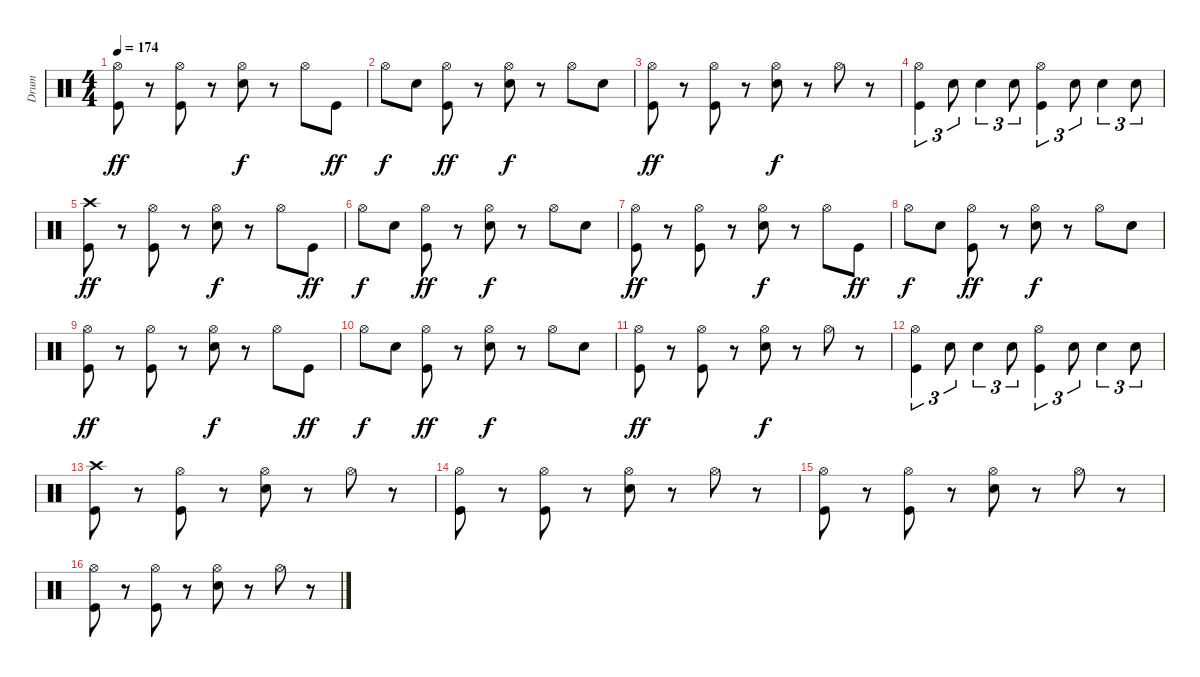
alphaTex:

\track ("Drum" "Drum") {instrument percussion}
\staff {score}
\articulation defaults
\ts (4 4)
\tempo 174
\clef neutral
\ks c
("Hi-Hat (open)" "Kick (hit)").8{dy ff} r.8 ("Hi-Hat (open)" "Kick (hit)").8 r.8 ("Hi-Hat (open)" "Snare (hit) 2").8{dy f} r.8 "Hi-Hat (open)".8 "Kick (hit)".8{dy ff} |
"Hi-Hat (open)".8{dy f} "Snare (hit) 2".8 ("Hi-Hat (open)" "Kick (hit)").8{dy ff} r.8 ("Hi-Hat (open)" "Snare (hit) 2").8{dy f} r.8 "Hi-Hat (open)".8 "Snare (hit) 2".8 |
("Hi-Hat (open)" "Kick (hit)").8{dy ff} r.8 ("Hi-Hat (open)" "Kick (hit)").8 r.8 ("Hi-Hat (open)" "Snare (hit) 2").8{dy f} r.8 "Hi-Hat (open)".8 r.8 |
("Hi-Hat (open)" "Kick (hit)").4{tu (3 2)} "Snare (hit) 2".8{tu (3 2)} "Snare (hit) 2".4{tu (3 2)} "Snare (hit) 2".8{tu (3 2)} ("Hi-Hat (open)" "Kick (hit)").4{tu (3 2)} "Snare (hit) 2".8{tu (3 2)} "Snare (hit) 2".4{tu (3 2)} "Snare (hit) 2".8{tu (3 2)} |
("Crash high (hit)" "Kick (hit)").8{dy ff} r.8 ("Hi-Hat (open)" "Kick (hit)").8 r.8 ("Hi-Hat (open)" "Snare (hit) 2").8{dy f} r.8 "Hi-Hat (open)".8 "Kick (hit)".8{dy ff} |
"Hi-Hat (open)".8{dy f} "Snare (hit) 2".8 ("Hi-Hat (open)" "Kick (hit)").8{dy ff} r.8 ("Hi-Hat (open)" "Snare (hit) 2").8{dy f} r.8 "Hi-Hat (open)".8 "Snare (hit) 2".8 |
("Hi-Hat (open)" "Kick (hit)").8{dy ff} r.8 ("Hi-Hat (open)" "Kick (hit)").8 r.8 ("Hi-Hat (open)" "Snare (hit) 2").8{dy f} r.8 "Hi-Hat (open)".8 "Kick (hit)".8{dy ff} |
"Hi-Hat (open)".8{dy f} "Snare (hit) 2".8 ("Hi-Hat (open)" "Kick (hit)").8{dy ff} r.8 ("Hi-Hat (open)" "Snare (hit) 2").8{dy f} r.8 "Hi-Hat (open)".8 "Snare (hit) 2".8 |
("Hi-Hat (open)" "Kick (hit)").8{dy ff} r.8 ("Hi-Hat (open)" "Kick (hit)").8 r.8 ("Hi-Hat (open)" "Snare (hit) 2").8{dy f} r.8 "Hi-Hat (open)".8 "Kick (hit)".8{dy ff} |
"Hi-Hat (open)".8{dy f} "Snare (hit) 2".8 ("Hi-Hat (open)" "Kick (hit)").8{dy ff} r.8 ("Hi-Hat (open)" "Snare (hit) 2").8{dy f} r.8 "Hi-Hat (open)".8 "Snare (hit) 2".8 |
("Hi-Hat (open)" "Kick (hit)").8{dy ff} r.8 ("Hi-Hat (open)" "Kick (hit)").8 r.8 ("Hi-Hat (open)" "Snare (hit) 2").8{dy f} r.8 "Hi-Hat (open)".8 r.8 |
("Hi-Hat (open)" "Kick (hit)").4{tu (3 2)} "Snare (hit) 2".8{tu (3 2)} "Snare (hit) 2".4{tu (3 2)} "Snare (hit) 2".8{tu (3 2)} ("Hi-Hat (open)" "Kick (hit)").4{tu (3 2)} "Snare (hit) 2".8{tu (3 2)} "Snare (hit) 2".4{tu (3 2)} "Snare (hit) 2".8{tu (3 2)} |
("Crash high (hit)" "Kick (hit)").8 r.8 ("Hi-Hat (open)" "Kick (hit)").8 r.8 ("Hi-Hat (open)" "Electric Snare (hit)").8 r.8 "Hi-Hat (open)".8 r.8 |
("Hi-Hat (open)" "Kick (hit)").8 r.8 ("Hi-Hat (open)" "Kick (hit)").8 r.8 ("Hi-Hat (open)" "Electric Snare (hit)").8 r.8 "Hi-Hat (open)".8 r.8 |
("Hi-Hat (open)" "Kick (hit)").8 r.8 ("Hi-Hat (open)" "Kick (hit)").8 r.8 ("Hi-Hat (open)" "Electric Snare (hit)").8 r.8 "Hi-Hat (open)".8 r.8 |
("Hi-Hat (open)" "Kick (hit)").8 r.8 ("Hi-Hat (open)" "Kick (hit)").8 r.8 ("Hi-Hat (open)" "Electric Snare (hit)").8 r.8 "Hi-Hat (open)".8 r.8
